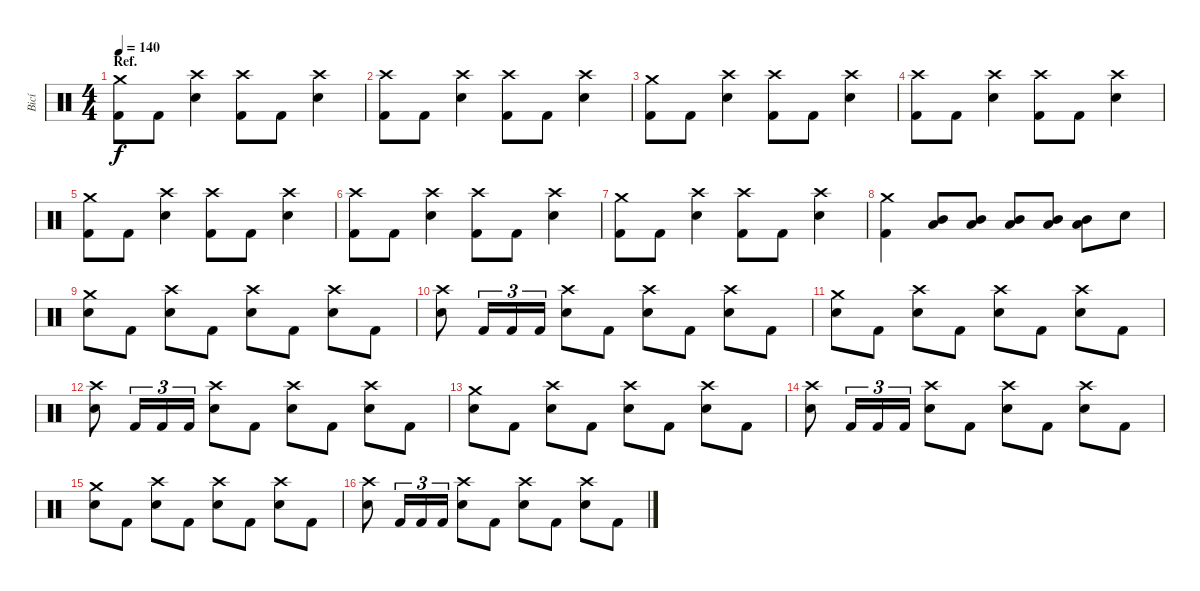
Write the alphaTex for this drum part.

\track ("Bicí" "Bicí") {instrument percussion}
\staff {score}
\articulation defaults
\ts (4 4)
\section ("" "Ref.")
\tempo 140
\clef neutral
\ks c
("Crash medium (hit)" "Kick (hit) 2").8{dy f} "Kick (hit) 2".8 ("Crash high (hit)" "Snare (hit) 2").4 ("Crash high (hit)" "Kick (hit) 2").8 "Kick (hit) 2".8 ("Crash high (hit)" "Snare (hit) 2").4 |
("Crash high (hit)" "Kick (hit) 2").8 "Kick (hit) 2".8 ("Crash high (hit)" "Snare (hit) 2").4 ("Crash high (hit)" "Kick (hit) 2").8 "Kick (hit) 2".8 ("Crash high (hit)" "Snare (hit) 2").4 |
("Crash medium (hit)" "Kick (hit) 2").8 "Kick (hit) 2".8 ("Crash high (hit)" "Snare (hit) 2").4 ("Crash high (hit)" "Kick (hit) 2").8 "Kick (hit) 2".8 ("Crash high (hit)" "Snare (hit) 2").4 |
("Crash high (hit)" "Kick (hit) 2").8 "Kick (hit) 2".8 ("Crash high (hit)" "Snare (hit) 2").4 ("Crash high (hit)" "Kick (hit) 2").8 "Kick (hit) 2".8 ("Crash high (hit)" "Snare (hit) 2").4 |
("Crash medium (hit)" "Kick (hit) 2").8 "Kick (hit) 2".8 ("Crash high (hit)" "Snare (hit) 2").4 ("Crash high (hit)" "Kick (hit) 2").8 "Kick (hit) 2".8 ("Crash high (hit)" "Snare (hit) 2").4 |
("Crash high (hit)" "Kick (hit) 2").8 "Kick (hit) 2".8 ("Crash high (hit)" "Snare (hit) 2").4 ("Crash high (hit)" "Kick (hit) 2").8 "Kick (hit) 2".8 ("Crash high (hit)" "Snare (hit) 2").4 |
("Crash medium (hit)" "Kick (hit) 2").8 "Kick (hit) 2".8 ("Crash high (hit)" "Snare (hit) 2").4 ("Crash high (hit)" "Kick (hit) 2").8 "Kick (hit) 2".8 ("Crash high (hit)" "Snare (hit) 2").4 |
("Crash medium (hit)" "Kick (hit) 2").4 ("Low Tom (hit)" "Mid Tom (hit)").8 ("Low Tom (hit)" "Mid Tom (hit)").8 ("Low Tom (hit)" "Mid Tom (hit)").8 ("Low Tom (hit)" "Mid Tom (hit)").8 ("Low Tom (hit)" "Mid Tom (hit)").8 "Snare (hit) 2".8 |
("Crash medium (hit)" "Snare (hit) 2").8 "Kick (hit) 2".8 ("Crash high (hit)" "Snare (hit) 2").8 "Kick (hit) 2".8 ("Crash high (hit)" "Snare (hit) 2").8 "Kick (hit) 2".8 ("Crash high (hit)" "Snare (hit) 2").8 "Kick (hit) 2".8 |
("Crash high (hit)" "Snare (hit) 2").8 "Kick (hit) 2".16{tu (3 2)} "Kick (hit) 2".16{tu (3 2)} "Kick (hit) 2".16{tu (3 2)} ("Crash high (hit)" "Snare (hit) 2").8 "Kick (hit) 2".8 ("Crash high (hit)" "Snare (hit) 2").8 "Kick (hit) 2".8 ("Crash high (hit)" "Snare (hit) 2").8 "Kick (hit) 2".8 |
("Crash medium (hit)" "Snare (hit) 2").8 "Kick (hit) 2".8 ("Crash high (hit)" "Snare (hit) 2").8 "Kick (hit) 2".8 ("Crash high (hit)" "Snare (hit) 2").8 "Kick (hit) 2".8 ("Crash high (hit)" "Snare (hit) 2").8 "Kick (hit) 2".8 |
("Crash high (hit)" "Snare (hit) 2").8 "Kick (hit) 2".16{tu (3 2)} "Kick (hit) 2".16{tu (3 2)} "Kick (hit) 2".16{tu (3 2)} ("Crash high (hit)" "Snare (hit) 2").8 "Kick (hit) 2".8 ("Crash high (hit)" "Snare (hit) 2").8 "Kick (hit) 2".8 ("Crash high (hit)" "Snare (hit) 2").8 "Kick (hit) 2".8 |
("Crash medium (hit)" "Snare (hit) 2").8 "Kick (hit) 2".8 ("Crash high (hit)" "Snare (hit) 2").8 "Kick (hit) 2".8 ("Crash high (hit)" "Snare (hit) 2").8 "Kick (hit) 2".8 ("Crash high (hit)" "Snare (hit) 2").8 "Kick (hit) 2".8 |
("Crash high (hit)" "Snare (hit) 2").8 "Kick (hit) 2".16{tu (3 2)} "Kick (hit) 2".16{tu (3 2)} "Kick (hit) 2".16{tu (3 2)} ("Crash high (hit)" "Snare (hit) 2").8 "Kick (hit) 2".8 ("Crash high (hit)" "Snare (hit) 2").8 "Kick (hit) 2".8 ("Crash high (hit)" "Snare (hit) 2").8 "Kick (hit) 2".8 |
("Crash medium (hit)" "Snare (hit) 2").8 "Kick (hit) 2".8 ("Crash high (hit)" "Snare (hit) 2").8 "Kick (hit) 2".8 ("Crash high (hit)" "Snare (hit) 2").8 "Kick (hit) 2".8 ("Crash high (hit)" "Snare (hit) 2").8 "Kick (hit) 2".8 |
("Crash high (hit)" "Snare (hit) 2").8 "Kick (hit) 2".16{tu (3 2)} "Kick (hit) 2".16{tu (3 2)} "Kick (hit) 2".16{tu (3 2)} ("Crash high (hit)" "Snare (hit) 2").8 "Kick (hit) 2".8 ("Crash high (hit)" "Snare (hit) 2").8 "Kick (hit) 2".8 ("Crash high (hit)" "Snare (hit) 2").8 "Kick (hit) 2".8
